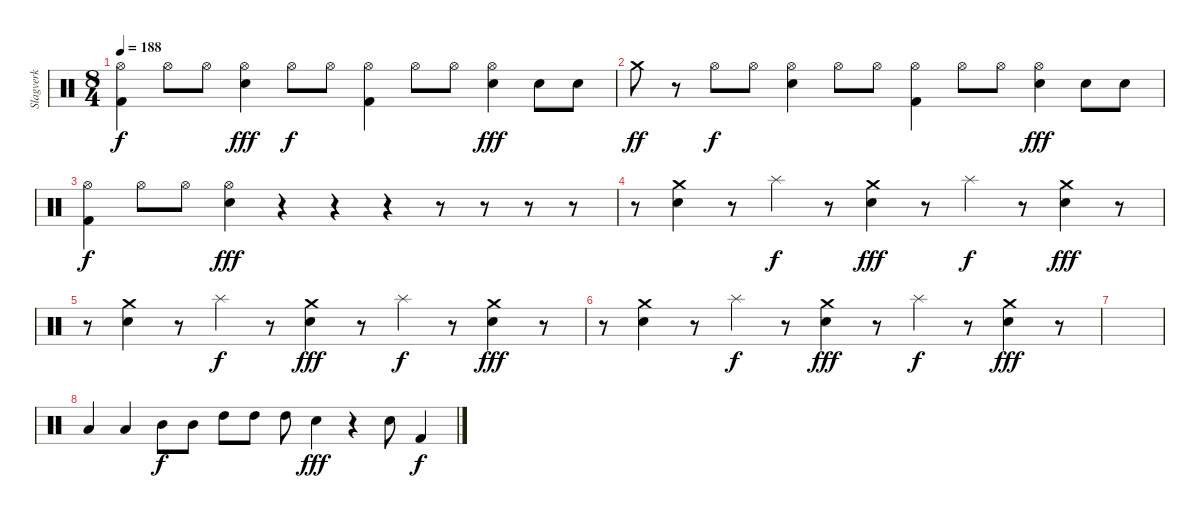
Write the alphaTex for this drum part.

\track ("Slagverk" "Slagverk") {instrument percussion}
\staff {score}
\articulation defaults
\ts (8 4)
\tempo 188
\clef neutral
\ks c
("Hi-Hat (open)" "Kick (hit) 2").4{dy f} "Hi-Hat (open)".8 "Hi-Hat (open)".8 ("Hi-Hat (open)" "Snare (hit) 2").4{dy fff} "Hi-Hat (open)".8{dy f} "Hi-Hat (open)".8 ("Hi-Hat (open)" "Kick (hit) 2").4 "Hi-Hat (open)".8 "Hi-Hat (open)".8 ("Hi-Hat (open)" "Snare (hit) 2").4{dy fff} "Snare (hit) 2".8 "Snare (hit) 2".8 |
"Crash medium (hit)".8{dy ff} r.8 "Hi-Hat (open)".8{dy f} "Hi-Hat (open)".8 ("Hi-Hat (open)" "Snare (hit) 2").4 "Hi-Hat (open)".8 "Hi-Hat (open)".8 ("Hi-Hat (open)" "Kick (hit) 2").4 "Hi-Hat (open)".8 "Hi-Hat (open)".8 ("Hi-Hat (open)" "Snare (hit) 2").4{dy fff} "Snare (hit) 2".8 "Snare (hit) 2".8 |
("Hi-Hat (open)" "Kick (hit) 2").4{dy f} "Hi-Hat (open)".8 "Hi-Hat (open)".8 ("Hi-Hat (open)" "Snare (hit) 2").4{dy fff} r.4 r.4 r.4 r.8 r.8 r.8 r.8 |
r.8 ("Crash medium (hit)" "Snare (hit) 2").4 r.8 "Splash (hit)".4{dy f} r.8 ("Crash medium (hit)" "Snare (hit) 2").4{dy fff} r.8 "Splash (hit)".4{dy f} r.8 ("Crash medium (hit)" "Snare (hit) 2").4{dy fff} r.8 |
r.8 ("Crash medium (hit)" "Snare (hit) 2").4 r.8 "Splash (hit)".4{dy f} r.8 ("Crash medium (hit)" "Snare (hit) 2").4{dy fff} r.8 "Splash (hit)".4{dy f} r.8 ("Crash medium (hit)" "Snare (hit) 2").4{dy fff} r.8 |
r.8 ("Crash medium (hit)" "Snare (hit) 2").4 r.8 "Splash (hit)".4{dy f} r.8 ("Crash medium (hit)" "Snare (hit) 2").4{dy fff} r.8 "Splash (hit)".4{dy f} r.8 ("Crash medium (hit)" "Snare (hit) 2").4{dy fff} r.8 |
|
"Low Tom (hit)".4 "Low Tom (hit)".4 "Mid Tom (hit)".8{dy f} "Mid Tom (hit)".8 "High Tom (hit)".8 "High Tom (hit)".8 "High Tom (hit)".8 "Snare (hit) 2".4{dy fff} r.4 "Snare (hit) 2".8 "Kick (hit) 2".4{dy f}
